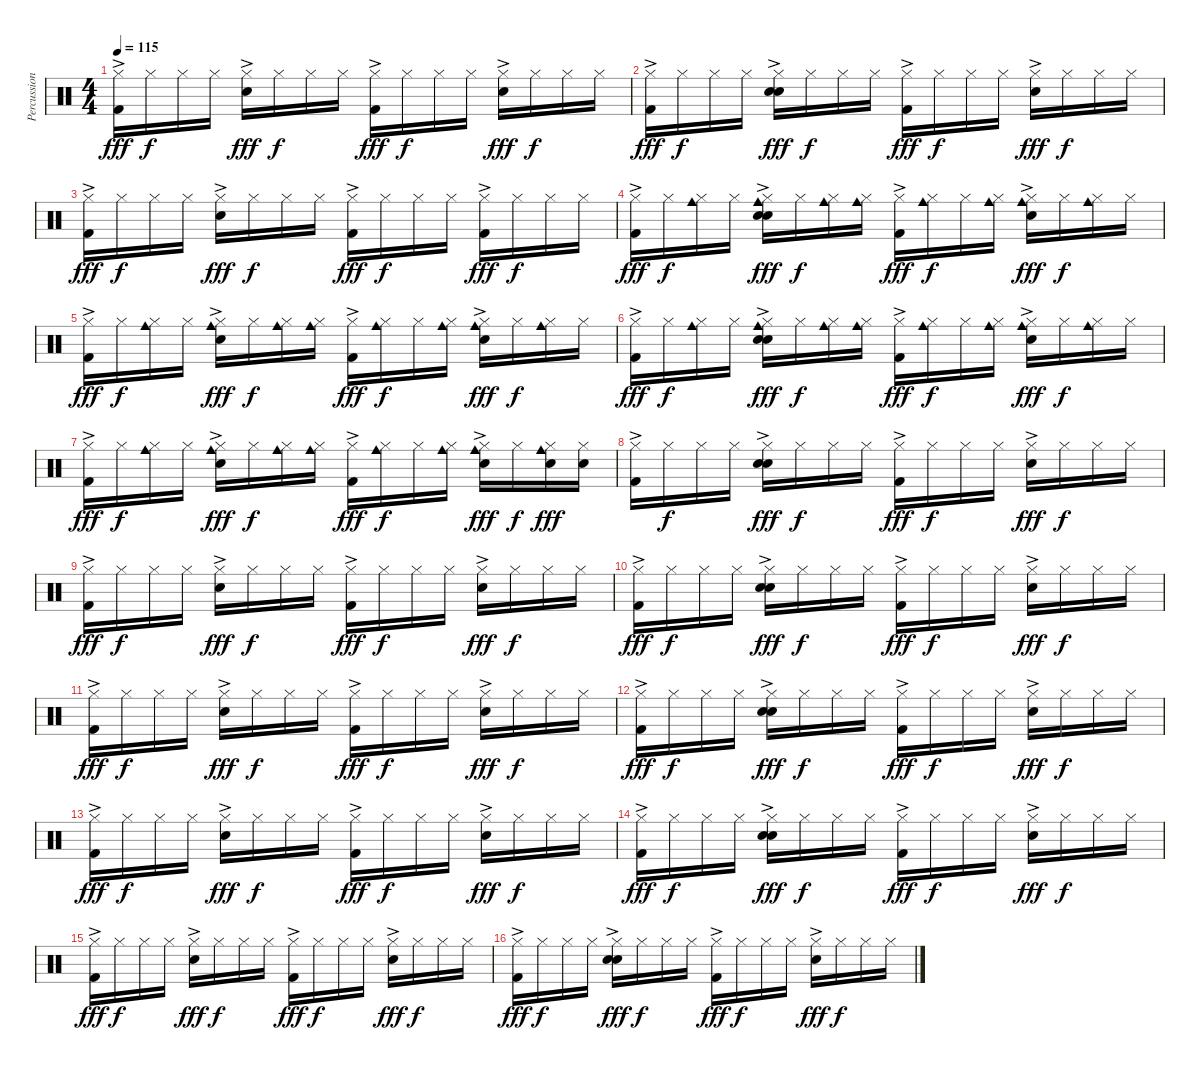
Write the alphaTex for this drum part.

\track ("Percussion" "Percussion") {instrument percussion}
\staff {score}
\articulation defaults
\ts (4 4)
\tempo 115
\clef neutral
\ks c
("Hi-Hat (closed)"{ac} "Kick (hit) 2").16{dy fff} "Hi-Hat (closed)".16{dy f} "Hi-Hat (closed)".16 "Hi-Hat (closed)".16 ("Hi-Hat (closed)"{ac} "Snare (hit) 2").16{dy fff} "Hi-Hat (closed)".16{dy f} "Hi-Hat (closed)".16 "Hi-Hat (closed)".16 ("Hi-Hat (closed)"{ac} "Kick (hit) 2").16{dy fff} "Hi-Hat (closed)".16{dy f} "Hi-Hat (closed)".16 "Hi-Hat (closed)".16 ("Hi-Hat (closed)"{ac} "Snare (hit) 2").16{dy fff} "Hi-Hat (closed)".16{dy f} "Hi-Hat (closed)".16 "Hi-Hat (closed)".16 |
("Hi-Hat (closed)"{ac} "Kick (hit) 2").16{dy fff} "Hi-Hat (closed)".16{dy f} "Hi-Hat (closed)".16 "Hi-Hat (closed)".16 ("Hi-Hat (closed)"{ac} "Snare (hit) 2" "Hand Clap (hit)").16{dy fff} "Hi-Hat (closed)".16{dy f} "Hi-Hat (closed)".16 "Hi-Hat (closed)".16 ("Hi-Hat (closed)"{ac} "Kick (hit) 2").16{dy fff} "Hi-Hat (closed)".16{dy f} "Hi-Hat (closed)".16 "Hi-Hat (closed)".16 ("Hi-Hat (closed)"{ac} "Snare (hit) 2").16{dy fff} "Hi-Hat (closed)".16{dy f} "Hi-Hat (closed)".16 "Hi-Hat (closed)".16 |
("Hi-Hat (closed)"{ac} "Kick (hit) 2").16{dy fff} "Hi-Hat (closed)".16{dy f} "Hi-Hat (closed)".16 "Hi-Hat (closed)".16 ("Hi-Hat (closed)"{ac} "Snare (hit) 2").16{dy fff} "Hi-Hat (closed)".16{dy f} "Hi-Hat (closed)".16 "Hi-Hat (closed)".16 ("Hi-Hat (closed)"{ac} "Kick (hit) 2").16{dy fff} "Hi-Hat (closed)".16{dy f} "Hi-Hat (closed)".16 "Hi-Hat (closed)".16 ("Hi-Hat (closed)"{ac} "Kick (hit) 2").16{dy fff} "Hi-Hat (closed)".16{dy f} "Hi-Hat (closed)".16 "Hi-Hat (closed)".16 |
("Hi-Hat (closed)"{ac} "Kick (hit) 2").16{dy fff} "Hi-Hat (closed)".16{dy f} ("Hi-Hat (closed)" "Cowbell medium (hit)").16 "Hi-Hat (closed)".16 ("Hi-Hat (closed)"{ac} "Snare (hit) 2" "Cowbell medium (hit)" "Hand Clap (hit)").16{dy fff} "Hi-Hat (closed)".16{dy f} ("Hi-Hat (closed)" "Cowbell medium (hit)").16 ("Hi-Hat (closed)" "Cowbell medium (hit)").16 ("Hi-Hat (closed)"{ac} "Kick (hit) 2").16{dy fff} ("Hi-Hat (closed)" "Cowbell medium (hit)").16{dy f} "Hi-Hat (closed)".16 ("Hi-Hat (closed)" "Cowbell medium (hit)").16 ("Hi-Hat (closed)"{ac} "Snare (hit) 2" "Cowbell medium (hit)").16{dy fff} "Hi-Hat (closed)".16{dy f} ("Hi-Hat (closed)" "Cowbell medium (hit)").16 "Hi-Hat (closed)".16 |
("Hi-Hat (closed)"{ac} "Kick (hit) 2").16{dy fff} "Hi-Hat (closed)".16{dy f} ("Hi-Hat (closed)" "Cowbell medium (hit)").16 "Hi-Hat (closed)".16 ("Hi-Hat (closed)"{ac} "Snare (hit) 2" "Cowbell medium (hit)").16{dy fff} "Hi-Hat (closed)".16{dy f} ("Hi-Hat (closed)" "Cowbell medium (hit)").16 ("Hi-Hat (closed)" "Cowbell medium (hit)").16 ("Hi-Hat (closed)"{ac} "Kick (hit) 2").16{dy fff} ("Hi-Hat (closed)" "Cowbell medium (hit)").16{dy f} "Hi-Hat (closed)".16 ("Hi-Hat (closed)" "Cowbell medium (hit)").16 ("Hi-Hat (closed)"{ac} "Snare (hit) 2" "Cowbell medium (hit)").16{dy fff} "Hi-Hat (closed)".16{dy f} ("Hi-Hat (closed)" "Cowbell medium (hit)").16 "Hi-Hat (closed)".16 |
("Hi-Hat (closed)"{ac} "Kick (hit) 2").16{dy fff} "Hi-Hat (closed)".16{dy f} ("Hi-Hat (closed)" "Cowbell medium (hit)").16 "Hi-Hat (closed)".16 ("Hi-Hat (closed)"{ac} "Snare (hit) 2" "Cowbell medium (hit)" "Hand Clap (hit)").16{dy fff} "Hi-Hat (closed)".16{dy f} ("Hi-Hat (closed)" "Cowbell medium (hit)").16 ("Hi-Hat (closed)" "Cowbell medium (hit)").16 ("Hi-Hat (closed)"{ac} "Kick (hit) 2").16{dy fff} ("Hi-Hat (closed)" "Cowbell medium (hit)").16{dy f} "Hi-Hat (closed)".16 ("Hi-Hat (closed)" "Cowbell medium (hit)").16 ("Hi-Hat (closed)"{ac} "Snare (hit) 2" "Cowbell medium (hit)").16{dy fff} "Hi-Hat (closed)".16{dy f} ("Hi-Hat (closed)" "Cowbell medium (hit)").16 "Hi-Hat (closed)".16 |
("Hi-Hat (closed)"{ac} "Kick (hit) 2").16{dy fff} "Hi-Hat (closed)".16{dy f} ("Hi-Hat (closed)" "Cowbell medium (hit)").16 "Hi-Hat (closed)".16 ("Hi-Hat (closed)"{ac} "Snare (hit) 2" "Cowbell medium (hit)").16{dy fff} "Hi-Hat (closed)".16{dy f} ("Hi-Hat (closed)" "Cowbell medium (hit)").16 ("Hi-Hat (closed)" "Cowbell medium (hit)").16 ("Hi-Hat (closed)"{ac} "Kick (hit) 2").16{dy fff} ("Hi-Hat (closed)" "Cowbell medium (hit)").16{dy f} "Hi-Hat (closed)".16 ("Hi-Hat (closed)" "Cowbell medium (hit)").16 ("Hi-Hat (closed)"{ac} "Snare (hit) 2" "Cowbell medium (hit)").16{dy fff} "Hi-Hat (closed)".16{dy f} ("Hi-Hat (closed)" "Snare (hit) 2" "Cowbell medium (hit)").16{dy fff} ("Hi-Hat (closed)" "Snare (hit) 2").16 |
("Hi-Hat (closed)"{ac} "Kick (hit) 2").16 "Hi-Hat (closed)".16{dy f} "Hi-Hat (closed)".16 "Hi-Hat (closed)".16 ("Hi-Hat (closed)"{ac} "Snare (hit) 2" "Hand Clap (hit)").16{dy fff} "Hi-Hat (closed)".16{dy f} "Hi-Hat (closed)".16 "Hi-Hat (closed)".16 ("Hi-Hat (closed)"{ac} "Kick (hit) 2").16{dy fff} "Hi-Hat (closed)".16{dy f} "Hi-Hat (closed)".16 "Hi-Hat (closed)".16 ("Hi-Hat (closed)"{ac} "Snare (hit) 2").16{dy fff} "Hi-Hat (closed)".16{dy f} "Hi-Hat (closed)".16 "Hi-Hat (closed)".16 |
("Hi-Hat (closed)"{ac} "Kick (hit) 2").16{dy fff} "Hi-Hat (closed)".16{dy f} "Hi-Hat (closed)".16 "Hi-Hat (closed)".16 ("Hi-Hat (closed)"{ac} "Snare (hit) 2").16{dy fff} "Hi-Hat (closed)".16{dy f} "Hi-Hat (closed)".16 "Hi-Hat (closed)".16 ("Hi-Hat (closed)"{ac} "Kick (hit) 2").16{dy fff} "Hi-Hat (closed)".16{dy f} "Hi-Hat (closed)".16 "Hi-Hat (closed)".16 ("Hi-Hat (closed)"{ac} "Snare (hit) 2").16{dy fff} "Hi-Hat (closed)".16{dy f} "Hi-Hat (closed)".16 "Hi-Hat (closed)".16 |
("Hi-Hat (closed)"{ac} "Kick (hit) 2").16{dy fff} "Hi-Hat (closed)".16{dy f} "Hi-Hat (closed)".16 "Hi-Hat (closed)".16 ("Hi-Hat (closed)"{ac} "Snare (hit) 2" "Hand Clap (hit)").16{dy fff} "Hi-Hat (closed)".16{dy f} "Hi-Hat (closed)".16 "Hi-Hat (closed)".16 ("Hi-Hat (closed)"{ac} "Kick (hit) 2").16{dy fff} "Hi-Hat (closed)".16{dy f} "Hi-Hat (closed)".16 "Hi-Hat (closed)".16 ("Hi-Hat (closed)"{ac} "Snare (hit) 2").16{dy fff} "Hi-Hat (closed)".16{dy f} "Hi-Hat (closed)".16 "Hi-Hat (closed)".16 |
("Hi-Hat (closed)"{ac} "Kick (hit) 2").16{dy fff} "Hi-Hat (closed)".16{dy f} "Hi-Hat (closed)".16 "Hi-Hat (closed)".16 ("Hi-Hat (closed)"{ac} "Snare (hit) 2").16{dy fff} "Hi-Hat (closed)".16{dy f} "Hi-Hat (closed)".16 "Hi-Hat (closed)".16 ("Hi-Hat (closed)"{ac} "Kick (hit) 2").16{dy fff} "Hi-Hat (closed)".16{dy f} "Hi-Hat (closed)".16 "Hi-Hat (closed)".16 ("Hi-Hat (closed)"{ac} "Snare (hit) 2").16{dy fff} "Hi-Hat (closed)".16{dy f} "Hi-Hat (closed)".16 "Hi-Hat (closed)".16 |
("Hi-Hat (closed)"{ac} "Kick (hit) 2").16{dy fff} "Hi-Hat (closed)".16{dy f} "Hi-Hat (closed)".16 "Hi-Hat (closed)".16 ("Hi-Hat (closed)"{ac} "Snare (hit) 2" "Hand Clap (hit)").16{dy fff} "Hi-Hat (closed)".16{dy f} "Hi-Hat (closed)".16 "Hi-Hat (closed)".16 ("Hi-Hat (closed)"{ac} "Kick (hit) 2").16{dy fff} "Hi-Hat (closed)".16{dy f} "Hi-Hat (closed)".16 "Hi-Hat (closed)".16 ("Hi-Hat (closed)"{ac} "Snare (hit) 2").16{dy fff} "Hi-Hat (closed)".16{dy f} "Hi-Hat (closed)".16 "Hi-Hat (closed)".16 |
("Hi-Hat (closed)"{ac} "Kick (hit) 2").16{dy fff} "Hi-Hat (closed)".16{dy f} "Hi-Hat (closed)".16 "Hi-Hat (closed)".16 ("Hi-Hat (closed)"{ac} "Snare (hit) 2").16{dy fff} "Hi-Hat (closed)".16{dy f} "Hi-Hat (closed)".16 "Hi-Hat (closed)".16 ("Hi-Hat (closed)"{ac} "Kick (hit) 2").16{dy fff} "Hi-Hat (closed)".16{dy f} "Hi-Hat (closed)".16 "Hi-Hat (closed)".16 ("Hi-Hat (closed)"{ac} "Snare (hit) 2").16{dy fff} "Hi-Hat (closed)".16{dy f} "Hi-Hat (closed)".16 "Hi-Hat (closed)".16 |
("Hi-Hat (closed)"{ac} "Kick (hit) 2").16{dy fff} "Hi-Hat (closed)".16{dy f} "Hi-Hat (closed)".16 "Hi-Hat (closed)".16 ("Hi-Hat (closed)"{ac} "Snare (hit) 2" "Hand Clap (hit)").16{dy fff} "Hi-Hat (closed)".16{dy f} "Hi-Hat (closed)".16 "Hi-Hat (closed)".16 ("Hi-Hat (closed)"{ac} "Kick (hit) 2").16{dy fff} "Hi-Hat (closed)".16{dy f} "Hi-Hat (closed)".16 "Hi-Hat (closed)".16 ("Hi-Hat (closed)"{ac} "Snare (hit) 2").16{dy fff} "Hi-Hat (closed)".16{dy f} "Hi-Hat (closed)".16 "Hi-Hat (closed)".16 |
("Hi-Hat (closed)"{ac} "Kick (hit) 2").16{dy fff} "Hi-Hat (closed)".16{dy f} "Hi-Hat (closed)".16 "Hi-Hat (closed)".16 ("Hi-Hat (closed)"{ac} "Snare (hit) 2").16{dy fff} "Hi-Hat (closed)".16{dy f} "Hi-Hat (closed)".16 "Hi-Hat (closed)".16 ("Hi-Hat (closed)"{ac} "Kick (hit) 2").16{dy fff} "Hi-Hat (closed)".16{dy f} "Hi-Hat (closed)".16 "Hi-Hat (closed)".16 ("Hi-Hat (closed)"{ac} "Snare (hit) 2").16{dy fff} "Hi-Hat (closed)".16{dy f} "Hi-Hat (closed)".16 "Hi-Hat (closed)".16 |
("Hi-Hat (closed)"{ac} "Kick (hit) 2").16{dy fff} "Hi-Hat (closed)".16{dy f} "Hi-Hat (closed)".16 "Hi-Hat (closed)".16 ("Hi-Hat (closed)"{ac} "Snare (hit) 2" "Hand Clap (hit)").16{dy fff} "Hi-Hat (closed)".16{dy f} "Hi-Hat (closed)".16 "Hi-Hat (closed)".16 ("Hi-Hat (closed)"{ac} "Kick (hit) 2").16{dy fff} "Hi-Hat (closed)".16{dy f} "Hi-Hat (closed)".16 "Hi-Hat (closed)".16 ("Hi-Hat (closed)"{ac} "Snare (hit) 2").16{dy fff} "Hi-Hat (closed)".16{dy f} "Hi-Hat (closed)".16 "Hi-Hat (closed)".16
